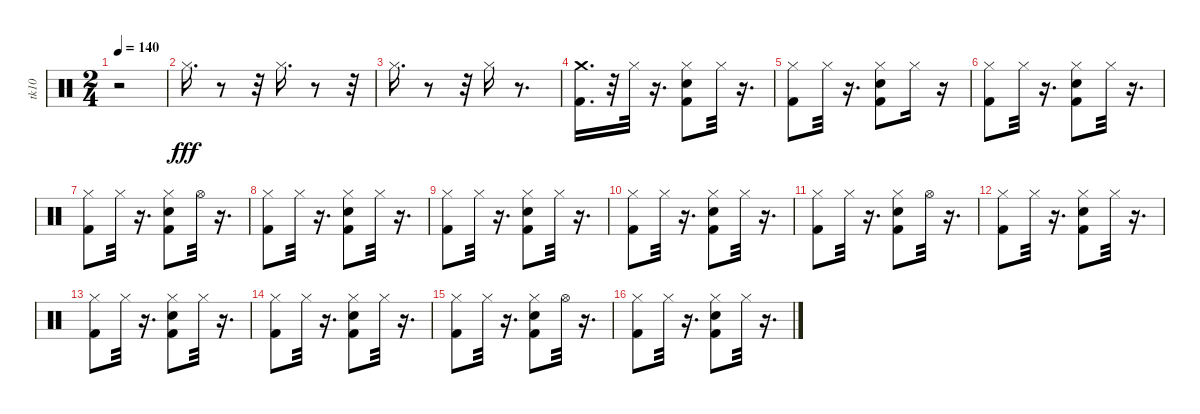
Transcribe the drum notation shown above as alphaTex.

\track ("tk10" "tk10") {instrument percussion}
\staff {score}
\articulation defaults
\ts (2 4)
\tempo 140
\clef neutral
\ks c
r.2{dy fff} |
"Hi-Hat (closed)".16{d balance 8} r.8 r.32 "Hi-Hat (closed)".16{d} r.8 r.32 |
"Hi-Hat (closed)".16{d} r.8 r.32 "Hi-Hat (closed)".16 r.8{d} |
("Kick (hit) 2" "Crash medium (hit)").16{d} r.32 "Hi-Hat (closed)".32 r.16{d} ("Kick (hit) 2" "Snare (hit) 2" "Hi-Hat (closed)").8 "Hi-Hat (closed)".32 r.16{d} |
("Kick (hit) 2" "Hi-Hat (closed)").8 "Hi-Hat (closed)".32 r.16{d} ("Snare (hit) 2" "Kick (hit) 2" "Hi-Hat (closed)").8 "Hi-Hat (closed)".16 r.16 |
("Kick (hit) 2" "Hi-Hat (closed)").8 "Hi-Hat (closed)".32 r.16{d} ("Kick (hit) 2" "Hi-Hat (closed)" "Snare (hit) 2").8 "Hi-Hat (closed)".32 r.16{d} |
("Kick (hit) 2" "Hi-Hat (closed)").8 "Hi-Hat (closed)".32 r.16{d} ("Hi-Hat (closed)" "Kick (hit) 2" "Snare (hit) 2").8 "Hi-Hat (open)".32 r.16{d} |
("Kick (hit) 2" "Hi-Hat (closed)").8 "Hi-Hat (closed)".32 r.16{d} ("Kick (hit) 2" "Hi-Hat (closed)" "Snare (hit) 2").8 "Hi-Hat (closed)".32 r.16{d} |
("Kick (hit) 2" "Hi-Hat (closed)").8 "Hi-Hat (closed)".32 r.16{d} ("Hi-Hat (closed)" "Snare (hit) 2" "Kick (hit) 2").8 "Hi-Hat (closed)".32 r.16{d} |
("Kick (hit) 2" "Hi-Hat (closed)").8 "Hi-Hat (closed)".32 r.16{d} ("Snare (hit) 2" "Kick (hit) 2" "Hi-Hat (closed)").8 "Hi-Hat (closed)".32 r.16{d} |
("Kick (hit) 2" "Hi-Hat (closed)").8 "Hi-Hat (closed)".32 r.16{d} ("Hi-Hat (closed)" "Snare (hit) 2" "Kick (hit) 2").8 "Hi-Hat (open)".32 r.16{d} |
("Kick (hit) 2" "Hi-Hat (closed)").8 "Hi-Hat (closed)".32 r.16{d} ("Hi-Hat (closed)" "Snare (hit) 2" "Kick (hit) 2").8 "Hi-Hat (closed)".32 r.16{d} |
("Kick (hit) 2" "Hi-Hat (closed)").8 "Hi-Hat (closed)".32 r.16{d} ("Kick (hit) 2" "Hi-Hat (closed)" "Snare (hit) 2").8 "Hi-Hat (closed)".32 r.16{d} |
("Kick (hit) 2" "Hi-Hat (closed)").8 "Hi-Hat (closed)".32 r.16{d} ("Snare (hit) 2" "Kick (hit) 2" "Hi-Hat (closed)").8 "Hi-Hat (closed)".32 r.16{d} |
("Kick (hit) 2" "Hi-Hat (closed)").8 "Hi-Hat (closed)".32 r.16{d} ("Snare (hit) 2" "Kick (hit) 2" "Hi-Hat (closed)").8 "Hi-Hat (open)".32 r.16{d} |
("Kick (hit) 2" "Hi-Hat (closed)").8 "Hi-Hat (closed)".32 r.16{d} ("Snare (hit) 2" "Kick (hit) 2" "Hi-Hat (closed)").8 "Hi-Hat (closed)".32 r.16{d}
